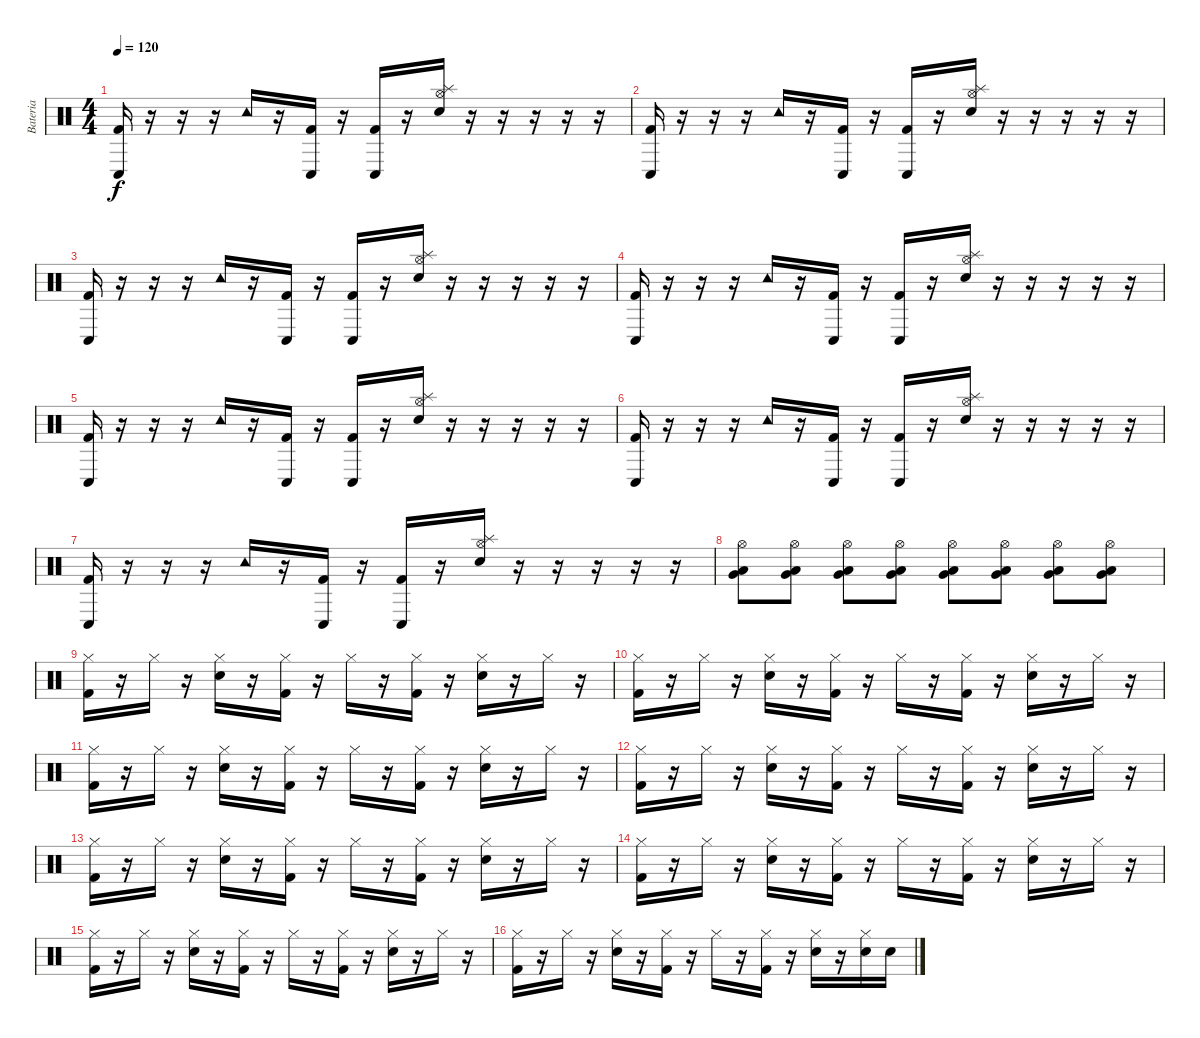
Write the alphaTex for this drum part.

\track ("Bateria" "Bateria") {instrument percussion}
\staff {score}
\articulation defaults
\ts (4 4)
\tempo 120
\clef neutral
\ks c
("Conga low (hit)" "Kick (hit) 2").16{dy f} r.16 r.16 r.16 "Tambourine (hit)".16 r.16 ("Conga low (hit)" "Kick (hit) 2").16 r.16 ("Conga low (hit)" "Kick (hit) 2").16 r.16 ("Hi-Hat (open)" "Splash (hit)" "Snare (hit) 2").16 r.16 r.16 r.16 r.16 r.16 |
("Conga low (hit)" "Kick (hit) 2").16 r.16 r.16 r.16 "Tambourine (hit)".16 r.16 ("Conga low (hit)" "Kick (hit) 2").16 r.16 ("Conga low (hit)" "Kick (hit) 2").16 r.16 ("Hi-Hat (open)" "Splash (hit)" "Snare (hit) 2").16 r.16 r.16 r.16 r.16 r.16 |
("Conga low (hit)" "Kick (hit) 2").16 r.16 r.16 r.16 "Tambourine (hit)".16 r.16 ("Conga low (hit)" "Kick (hit) 2").16 r.16 ("Conga low (hit)" "Kick (hit) 2").16 r.16 ("Hi-Hat (open)" "Splash (hit)" "Snare (hit) 2").16 r.16 r.16 r.16 r.16 r.16 |
("Conga low (hit)" "Kick (hit) 2").16 r.16 r.16 r.16 "Tambourine (hit)".16 r.16 ("Conga low (hit)" "Kick (hit) 2").16 r.16 ("Conga low (hit)" "Kick (hit) 2").16 r.16 ("Hi-Hat (open)" "Splash (hit)" "Snare (hit) 2").16 r.16 r.16 r.16 r.16 r.16 |
("Conga low (hit)" "Kick (hit) 2").16 r.16 r.16 r.16 "Tambourine (hit)".16 r.16 ("Conga low (hit)" "Kick (hit) 2").16 r.16 ("Conga low (hit)" "Kick (hit) 2").16 r.16 ("Hi-Hat (open)" "Splash (hit)" "Snare (hit) 2").16 r.16 r.16 r.16 r.16 r.16 |
("Conga low (hit)" "Kick (hit) 2").16 r.16 r.16 r.16 "Tambourine (hit)".16 r.16 ("Conga low (hit)" "Kick (hit) 2").16 r.16 ("Conga low (hit)" "Kick (hit) 2").16 r.16 ("Hi-Hat (open)" "Splash (hit)" "Snare (hit) 2").16 r.16 r.16 r.16 r.16 r.16 |
("Conga low (hit)" "Kick (hit) 2").16 r.16 r.16 r.16 "Tambourine (hit)".16 r.16 ("Conga low (hit)" "Kick (hit) 2").16 r.16 ("Conga low (hit)" "Kick (hit) 2").16 r.16 ("Hi-Hat (open)" "Splash (hit)" "Snare (hit) 2").16 r.16 r.16 r.16 r.16 r.16 |
("Hi-Hat (open)" "Low Tom (hit)" "Very Low Tom (hit)").8 ("Hi-Hat (open)" "Low Tom (hit)" "Very Low Tom (hit)").8 ("Hi-Hat (open)" "Low Tom (hit)" "Very Low Tom (hit)").8 ("Hi-Hat (open)" "Low Tom (hit)" "Very Low Tom (hit)").8 ("Hi-Hat (open)" "Low Tom (hit)" "Very Low Tom (hit)").8 ("Hi-Hat (open)" "Low Tom (hit)" "Very Low Tom (hit)").8 ("Hi-Hat (open)" "Low Tom (hit)" "Very Low Tom (hit)").8 ("Hi-Hat (open)" "Low Tom (hit)" "Very Low Tom (hit)").8 |
("Hi-Hat (closed)" "Kick (hit) 2").16 r.16 "Hi-Hat (closed)".16 r.16 ("Hi-Hat (closed)" "Snare (hit) 2").16 r.16 ("Hi-Hat (closed)" "Kick (hit) 2").16 r.16 "Hi-Hat (closed)".16 r.16 ("Hi-Hat (closed)" "Kick (hit) 2").16 r.16 ("Hi-Hat (closed)" "Snare (hit) 2").16 r.16 "Hi-Hat (closed)".16 r.16 |
("Hi-Hat (closed)" "Kick (hit) 2").16 r.16 "Hi-Hat (closed)".16 r.16 ("Hi-Hat (closed)" "Snare (hit) 2").16 r.16 ("Hi-Hat (closed)" "Kick (hit) 2").16 r.16 "Hi-Hat (closed)".16 r.16 ("Hi-Hat (closed)" "Kick (hit) 2").16 r.16 ("Hi-Hat (closed)" "Snare (hit) 2").16 r.16 "Hi-Hat (closed)".16 r.16 |
("Hi-Hat (closed)" "Kick (hit) 2").16 r.16 "Hi-Hat (closed)".16 r.16 ("Hi-Hat (closed)" "Snare (hit) 2").16 r.16 ("Hi-Hat (closed)" "Kick (hit) 2").16 r.16 "Hi-Hat (closed)".16 r.16 ("Hi-Hat (closed)" "Kick (hit) 2").16 r.16 ("Hi-Hat (closed)" "Snare (hit) 2").16 r.16 "Hi-Hat (closed)".16 r.16 |
("Hi-Hat (closed)" "Kick (hit) 2").16 r.16 "Hi-Hat (closed)".16 r.16 ("Hi-Hat (closed)" "Snare (hit) 2").16 r.16 ("Hi-Hat (closed)" "Kick (hit) 2").16 r.16 "Hi-Hat (closed)".16 r.16 ("Hi-Hat (closed)" "Kick (hit) 2").16 r.16 ("Hi-Hat (closed)" "Snare (hit) 2").16 r.16 "Hi-Hat (closed)".16 r.16 |
("Hi-Hat (closed)" "Kick (hit) 2").16 r.16 "Hi-Hat (closed)".16 r.16 ("Hi-Hat (closed)" "Snare (hit) 2").16 r.16 ("Hi-Hat (closed)" "Kick (hit) 2").16 r.16 "Hi-Hat (closed)".16 r.16 ("Hi-Hat (closed)" "Kick (hit) 2").16 r.16 ("Hi-Hat (closed)" "Snare (hit) 2").16 r.16 "Hi-Hat (closed)".16 r.16 |
("Hi-Hat (closed)" "Kick (hit) 2").16 r.16 "Hi-Hat (closed)".16 r.16 ("Hi-Hat (closed)" "Snare (hit) 2").16 r.16 ("Hi-Hat (closed)" "Kick (hit) 2").16 r.16 "Hi-Hat (closed)".16 r.16 ("Hi-Hat (closed)" "Kick (hit) 2").16 r.16 ("Hi-Hat (closed)" "Snare (hit) 2").16 r.16 "Hi-Hat (closed)".16 r.16 |
("Hi-Hat (closed)" "Kick (hit) 2").16 r.16 "Hi-Hat (closed)".16 r.16 ("Hi-Hat (closed)" "Snare (hit) 2").16 r.16 ("Hi-Hat (closed)" "Kick (hit) 2").16 r.16 "Hi-Hat (closed)".16 r.16 ("Hi-Hat (closed)" "Kick (hit) 2").16 r.16 ("Hi-Hat (closed)" "Snare (hit) 2").16 r.16 "Hi-Hat (closed)".16 r.16 |
("Hi-Hat (closed)" "Kick (hit) 2").16 r.16 "Hi-Hat (closed)".16 r.16 ("Hi-Hat (closed)" "Snare (hit) 2").16 r.16 ("Hi-Hat (closed)" "Kick (hit) 2").16 r.16 "Hi-Hat (closed)".16 r.16 ("Hi-Hat (closed)" "Kick (hit) 2").16 r.16 ("Hi-Hat (closed)" "Snare (hit) 2").16 r.16 ("Hi-Hat (closed)" "Snare (hit) 2").16 "Snare (hit) 2".16
